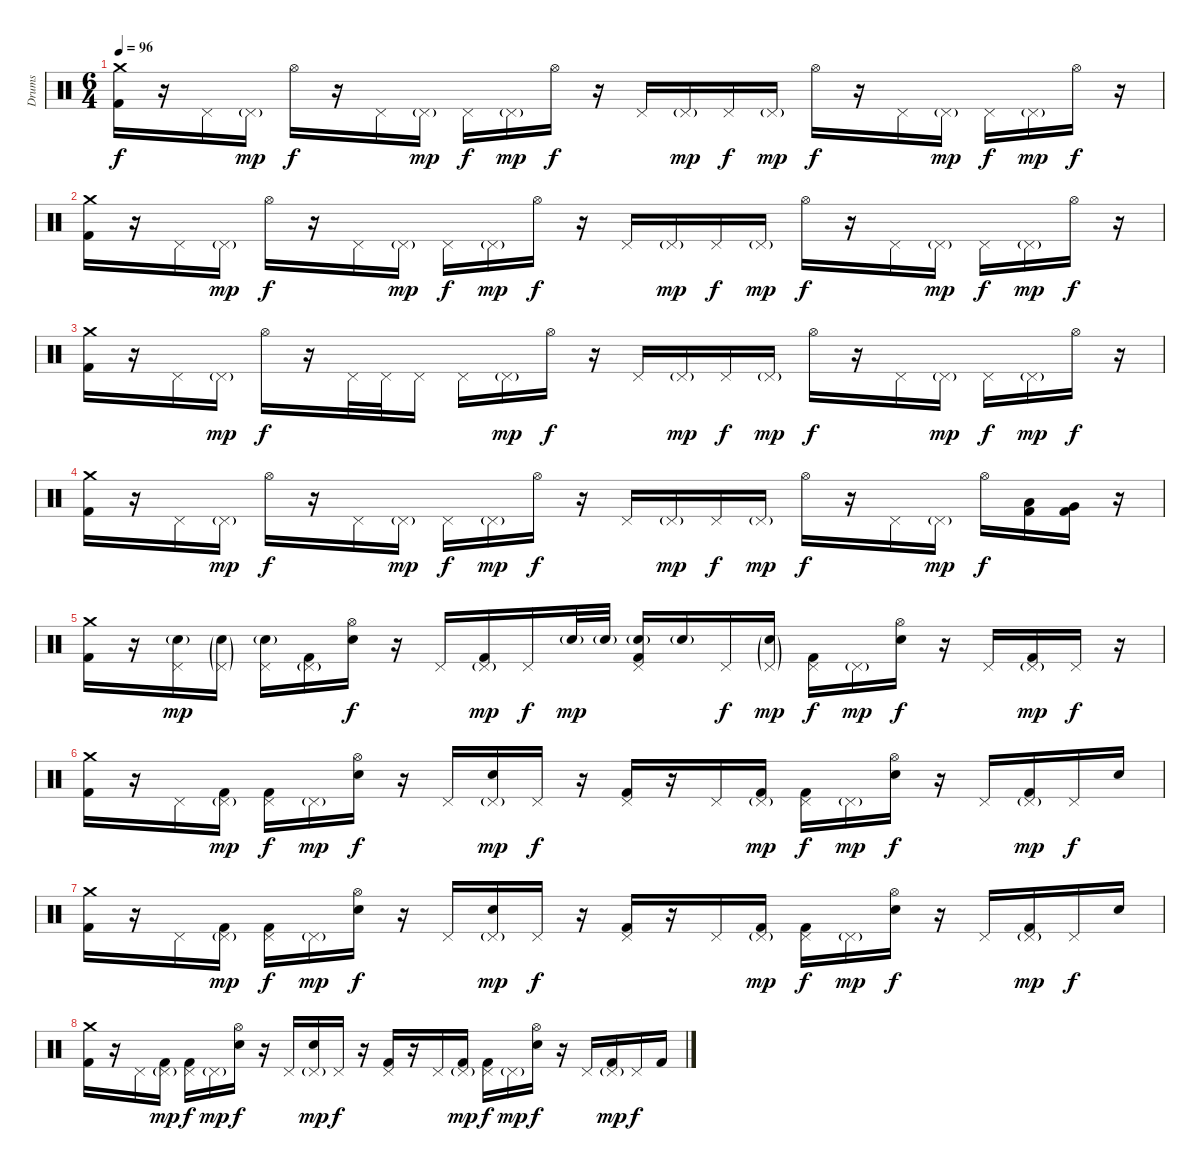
\track ("Drums" "Drums") {instrument percussion}
\staff {score}
\articulation defaults
\ts (6 4)
\section ("" "")
\tempo 96
\clef neutral
\ks c
("Crash medium (hit)" "Kick (hit) 2").16{dy f} r.16 "Pedal Hi-Hat (hit)".16 "Pedal Hi-Hat (hit)"{g}.16{dy mp} "Hi-Hat (open)".16{dy f} r.16 "Pedal Hi-Hat (hit)".16 "Pedal Hi-Hat (hit)"{g}.16{dy mp} "Pedal Hi-Hat (hit)".16{dy f} "Pedal Hi-Hat (hit)"{g}.16{dy mp} "Hi-Hat (open)".16{dy f} r.16 "Pedal Hi-Hat (hit)".16 "Pedal Hi-Hat (hit)"{g}.16{dy mp} "Pedal Hi-Hat (hit)".16{dy f} "Pedal Hi-Hat (hit)"{g}.16{dy mp} "Hi-Hat (open)".16{dy f} r.16 "Pedal Hi-Hat (hit)".16 "Pedal Hi-Hat (hit)"{g}.16{dy mp} "Pedal Hi-Hat (hit)".16{dy f} "Pedal Hi-Hat (hit)"{g}.16{dy mp} "Hi-Hat (open)".16{dy f} r.16 |
("Crash medium (hit)" "Kick (hit) 2").16 r.16 "Pedal Hi-Hat (hit)".16 "Pedal Hi-Hat (hit)"{g}.16{dy mp} "Hi-Hat (open)".16{dy f} r.16 "Pedal Hi-Hat (hit)".16 "Pedal Hi-Hat (hit)"{g}.16{dy mp} "Pedal Hi-Hat (hit)".16{dy f} "Pedal Hi-Hat (hit)"{g}.16{dy mp} "Hi-Hat (open)".16{dy f} r.16 "Pedal Hi-Hat (hit)".16 "Pedal Hi-Hat (hit)"{g}.16{dy mp} "Pedal Hi-Hat (hit)".16{dy f} "Pedal Hi-Hat (hit)"{g}.16{dy mp} "Hi-Hat (open)".16{dy f} r.16 "Pedal Hi-Hat (hit)".16 "Pedal Hi-Hat (hit)"{g}.16{dy mp} "Pedal Hi-Hat (hit)".16{dy f} "Pedal Hi-Hat (hit)"{g}.16{dy mp} "Hi-Hat (open)".16{dy f} r.16 |
("Crash medium (hit)" "Kick (hit) 2").16 r.16 "Pedal Hi-Hat (hit)".16 "Pedal Hi-Hat (hit)"{g}.16{dy mp} "Hi-Hat (open)".16{dy f} r.16 "Pedal Hi-Hat (hit)".32 "Pedal Hi-Hat (hit)".32 "Pedal Hi-Hat (hit)".16 "Pedal Hi-Hat (hit)".16 "Pedal Hi-Hat (hit)"{g}.16{dy mp} "Hi-Hat (open)".16{dy f} r.16 "Pedal Hi-Hat (hit)".16 "Pedal Hi-Hat (hit)"{g}.16{dy mp} "Pedal Hi-Hat (hit)".16{dy f} "Pedal Hi-Hat (hit)"{g}.16{dy mp} "Hi-Hat (open)".16{dy f} r.16 "Pedal Hi-Hat (hit)".16 "Pedal Hi-Hat (hit)"{g}.16{dy mp} "Pedal Hi-Hat (hit)".16{dy f} "Pedal Hi-Hat (hit)"{g}.16{dy mp} "Hi-Hat (open)".16{dy f} r.16 |
("Crash medium (hit)" "Kick (hit) 2").16 r.16 "Pedal Hi-Hat (hit)".16 "Pedal Hi-Hat (hit)"{g}.16{dy mp} "Hi-Hat (open)".16{dy f} r.16 "Pedal Hi-Hat (hit)".16 "Pedal Hi-Hat (hit)"{g}.16{dy mp} "Pedal Hi-Hat (hit)".16{dy f} "Pedal Hi-Hat (hit)"{g}.16{dy mp} "Hi-Hat (open)".16{dy f} r.16 "Pedal Hi-Hat (hit)".16 "Pedal Hi-Hat (hit)"{g}.16{dy mp} "Pedal Hi-Hat (hit)".16{dy f} "Pedal Hi-Hat (hit)"{g}.16{dy mp} "Hi-Hat (open)".16{dy f} r.16 "Pedal Hi-Hat (hit)".16 "Pedal Hi-Hat (hit)"{g}.16{dy mp} "Hi-Hat (open)".16{dy f} ("Low Tom (hit)" "Kick (hit) 2").16 ("Very Low Tom (hit)" "Kick (hit) 2").16 r.16 |
\section ("" "")
("Crash medium (hit)" "Kick (hit) 2").16 r.16 ("Pedal Hi-Hat (hit)" "Electric Snare (hit)"{g}).16{dy mp} ("Pedal Hi-Hat (hit)"{g} "Electric Snare (hit)"{g}).16 ("Pedal Hi-Hat (hit)" "Electric Snare (hit)"{g}).16 ("Pedal Hi-Hat (hit)"{g} "Kick (hit) 2").16 ("Hi-Hat (open)" "Electric Snare (hit)").16{dy f} r.16 "Pedal Hi-Hat (hit)".16 ("Pedal Hi-Hat (hit)"{g} "Kick (hit) 2").16{dy mp} "Pedal Hi-Hat (hit)".16{dy f} "Electric Snare (hit)"{g}.32{dy mp} "Electric Snare (hit)"{g}.32 ("Pedal Hi-Hat (hit)" "Electric Snare (hit)"{g} "Kick (hit) 2").16 "Electric Snare (hit)"{g}.16 "Pedal Hi-Hat (hit)".16{dy f} ("Pedal Hi-Hat (hit)"{g} "Electric Snare (hit)"{g}).16{dy mp} ("Pedal Hi-Hat (hit)" "Kick (hit) 2").16{dy f} "Pedal Hi-Hat (hit)"{g}.16{dy mp} ("Hi-Hat (open)" "Electric Snare (hit)").16{dy f} r.16 "Pedal Hi-Hat (hit)".16 ("Pedal Hi-Hat (hit)"{g} "Kick (hit) 2").16{dy mp} "Pedal Hi-Hat (hit)".16{dy f} r.16 |
("Crash medium (hit)" "Kick (hit) 2").16 r.16 "Pedal Hi-Hat (hit)".16 ("Pedal Hi-Hat (hit)"{g} "Kick (hit) 2").16{dy mp} ("Pedal Hi-Hat (hit)" "Kick (hit) 2").16{dy f} "Pedal Hi-Hat (hit)"{g}.16{dy mp} ("Hi-Hat (open)" "Electric Snare (hit)").16{dy f} r.16 "Pedal Hi-Hat (hit)".16 ("Pedal Hi-Hat (hit)"{g} "Electric Snare (hit)").16{dy mp} "Pedal Hi-Hat (hit)".16{dy f} r.16 ("Pedal Hi-Hat (hit)" "Kick (hit) 2").16 r.16 "Pedal Hi-Hat (hit)".16 ("Pedal Hi-Hat (hit)"{g} "Kick (hit) 2").16{dy mp} ("Pedal Hi-Hat (hit)" "Kick (hit) 2").16{dy f} "Pedal Hi-Hat (hit)"{g}.16{dy mp} ("Hi-Hat (open)" "Electric Snare (hit)").16{dy f} r.16 "Pedal Hi-Hat (hit)".16 ("Pedal Hi-Hat (hit)"{g} "Kick (hit) 2").16{dy mp} "Pedal Hi-Hat (hit)".16{dy f} "Electric Snare (hit)".16 |
("Crash medium (hit)" "Kick (hit) 2").16 r.16 "Pedal Hi-Hat (hit)".16 ("Pedal Hi-Hat (hit)"{g} "Kick (hit) 2").16{dy mp} ("Pedal Hi-Hat (hit)" "Kick (hit) 2").16{dy f} "Pedal Hi-Hat (hit)"{g}.16{dy mp} ("Hi-Hat (open)" "Electric Snare (hit)").16{dy f} r.16 "Pedal Hi-Hat (hit)".16 ("Pedal Hi-Hat (hit)"{g} "Electric Snare (hit)").16{dy mp} "Pedal Hi-Hat (hit)".16{dy f} r.16 ("Pedal Hi-Hat (hit)" "Kick (hit) 2").16 r.16 "Pedal Hi-Hat (hit)".16 ("Pedal Hi-Hat (hit)"{g} "Kick (hit) 2").16{dy mp} ("Pedal Hi-Hat (hit)" "Kick (hit) 2").16{dy f} "Pedal Hi-Hat (hit)"{g}.16{dy mp} ("Hi-Hat (open)" "Electric Snare (hit)").16{dy f} r.16 "Pedal Hi-Hat (hit)".16 ("Pedal Hi-Hat (hit)"{g} "Kick (hit) 2").16{dy mp} "Pedal Hi-Hat (hit)".16{dy f} "Electric Snare (hit)".16 |
("Crash medium (hit)" "Kick (hit) 2").16 r.16 "Pedal Hi-Hat (hit)".16 ("Pedal Hi-Hat (hit)"{g} "Kick (hit) 2").16{dy mp} ("Pedal Hi-Hat (hit)" "Kick (hit) 2").16{dy f} "Pedal Hi-Hat (hit)"{g}.16{dy mp} ("Hi-Hat (open)" "Electric Snare (hit)").16{dy f} r.16 "Pedal Hi-Hat (hit)".16 ("Pedal Hi-Hat (hit)"{g} "Electric Snare (hit)").16{dy mp} "Pedal Hi-Hat (hit)".16{dy f} r.16 ("Pedal Hi-Hat (hit)" "Kick (hit) 2").16 r.16 "Pedal Hi-Hat (hit)".16 ("Pedal Hi-Hat (hit)"{g} "Kick (hit) 2").16{dy mp} ("Pedal Hi-Hat (hit)" "Kick (hit) 2").16{dy f} "Pedal Hi-Hat (hit)"{g}.16{dy mp} ("Hi-Hat (open)" "Electric Snare (hit)").16{dy f} r.16 "Pedal Hi-Hat (hit)".16 ("Pedal Hi-Hat (hit)"{g} "Kick (hit) 2").16{dy mp} "Pedal Hi-Hat (hit)".16{dy f} "Kick (hit) 2".16
